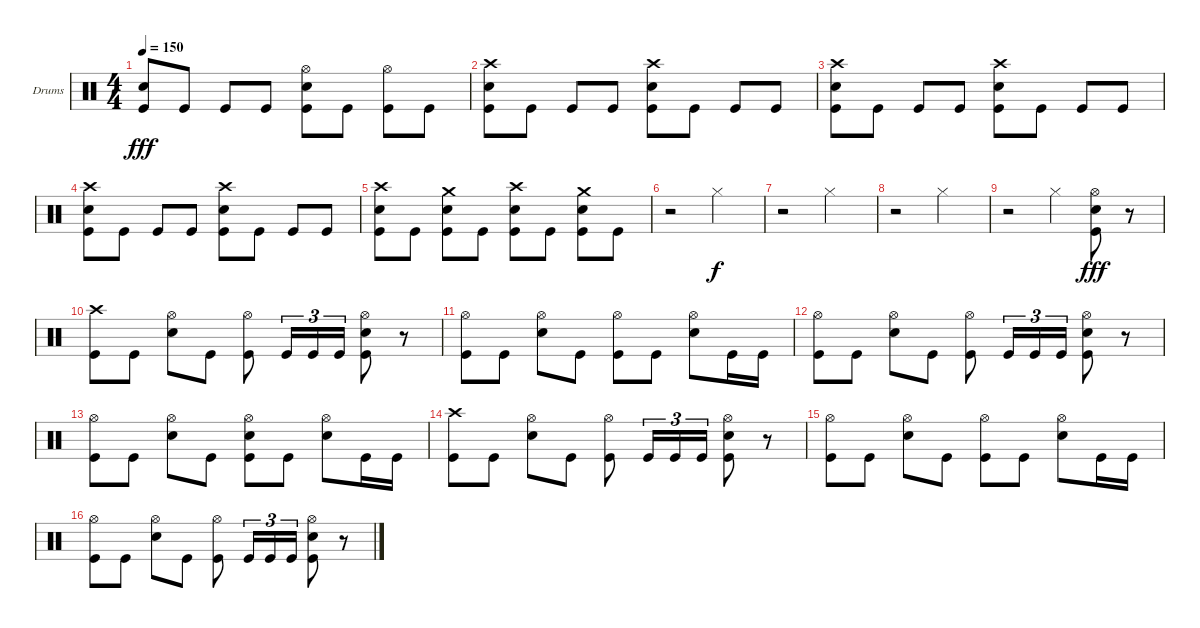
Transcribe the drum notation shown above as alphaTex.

\bracketExtendMode groupsimilarinstruments
\firstSystemTrackNameOrientation horizontal
\otherSystemsTrackNameOrientation horizontal
\track ("Corey" "Drums") {instrument percussion}
\staff {score}
\articulation defaults
\ts (4 4)
\tempo 150
\clef neutral
\ks c
("Kick (hit)" "Snare (hit) 2").8{dy fff} "Kick (hit)".8 "Kick (hit)".8 "Kick (hit)".8 ("Kick (hit)" "Snare (hit) 2" "Hi-Hat (open)").8 "Kick (hit)".8 ("Kick (hit)" "Hi-Hat (open)").8 "Kick (hit)".8 |
("Kick (hit)" "Snare (hit) 2" "Crash high (hit)").8 "Kick (hit)".8 "Kick (hit)".8 "Kick (hit)".8 ("Kick (hit)" "Snare (hit) 2" "Crash high (hit)").8 "Kick (hit)".8 "Kick (hit)".8 "Kick (hit)".8 |
("Kick (hit)" "Snare (hit) 2" "Crash high (hit)").8 "Kick (hit)".8 "Kick (hit)".8 "Kick (hit)".8 ("Kick (hit)" "Snare (hit) 2" "Crash high (hit)").8 "Kick (hit)".8 "Kick (hit)".8 "Kick (hit)".8 |
("Kick (hit)" "Snare (hit) 2" "Crash high (hit)").8 "Kick (hit)".8 "Kick (hit)".8 "Kick (hit)".8 ("Kick (hit)" "Snare (hit) 2" "Crash high (hit)").8 "Kick (hit)".8 "Kick (hit)".8 "Kick (hit)".8 |
("Kick (hit)" "Snare (hit) 2" "Crash high (hit)").8 "Kick (hit)".8 ("Kick (hit)" "Snare (hit) 2" "Crash medium (hit)").8 "Kick (hit)".8 ("Kick (hit)" "Snare (hit) 2" "Crash high (hit)").8 "Kick (hit)".8 ("Kick (hit)" "Snare (hit) 2" "Crash medium (hit)").8 "Kick (hit)".8 |
r.2 "Hi-Hat (closed)".2{dy f} |
r.2 "Hi-Hat (closed)".2 |
r.2 "Hi-Hat (closed)".2 |
r.2 "Hi-Hat (closed)".4 ("Snare (hit) 2" "Kick (hit)" "Hi-Hat (open)").8{dy fff} r.8 |
("Kick (hit)" "Crash high (hit)").8 "Kick (hit)".8 ("Snare (hit) 2" "Hi-Hat (open)").8 "Kick (hit)".8 ("Kick (hit)" "Hi-Hat (open)").8 "Kick (hit)".16{tu (3 2)} "Kick (hit)".16{tu (3 2)} "Kick (hit)".16{tu (3 2)} ("Kick (hit)" "Snare (hit) 2" "Hi-Hat (open)").8 r.8 |
("Kick (hit)" "Hi-Hat (open)").8 "Kick (hit)".8 ("Snare (hit) 2" "Hi-Hat (open)").8 "Kick (hit)".8 ("Kick (hit)" "Hi-Hat (open)").8 "Kick (hit)".8 ("Snare (hit) 2" "Hi-Hat (open)").8 "Kick (hit)".16 "Kick (hit)".16 |
("Kick (hit)" "Hi-Hat (open)").8 "Kick (hit)".8 ("Snare (hit) 2" "Hi-Hat (open)").8 "Kick (hit)".8 ("Kick (hit)" "Hi-Hat (open)").8 "Kick (hit)".16{tu (3 2)} "Kick (hit)".16{tu (3 2)} "Kick (hit)".16{tu (3 2)} ("Kick (hit)" "Snare (hit) 2" "Hi-Hat (open)").8 r.8 |
("Kick (hit)" "Hi-Hat (open)").8 "Kick (hit)".8 ("Snare (hit) 2" "Hi-Hat (open)").8 "Kick (hit)".8 ("Kick (hit)" "Hi-Hat (open)" "Snare (hit) 2").8 "Kick (hit)".8 ("Snare (hit) 2" "Hi-Hat (open)").8 "Kick (hit)".16 "Kick (hit)".16 |
("Kick (hit)" "Crash high (hit)").8 "Kick (hit)".8 ("Snare (hit) 2" "Hi-Hat (open)").8 "Kick (hit)".8 ("Kick (hit)" "Hi-Hat (open)").8 "Kick (hit)".16{tu (3 2)} "Kick (hit)".16{tu (3 2)} "Kick (hit)".16{tu (3 2)} ("Kick (hit)" "Snare (hit) 2" "Hi-Hat (open)").8 r.8 |
("Kick (hit)" "Hi-Hat (open)").8 "Kick (hit)".8 ("Snare (hit) 2" "Hi-Hat (open)").8 "Kick (hit)".8 ("Kick (hit)" "Hi-Hat (open)").8 "Kick (hit)".8 ("Snare (hit) 2" "Hi-Hat (open)").8 "Kick (hit)".16 "Kick (hit)".16 |
("Kick (hit)" "Hi-Hat (open)").8 "Kick (hit)".8 ("Snare (hit) 2" "Hi-Hat (open)").8 "Kick (hit)".8 ("Kick (hit)" "Hi-Hat (open)").8 "Kick (hit)".16{tu (3 2)} "Kick (hit)".16{tu (3 2)} "Kick (hit)".16{tu (3 2)} ("Kick (hit)" "Snare (hit) 2" "Hi-Hat (open)").8 r.8
